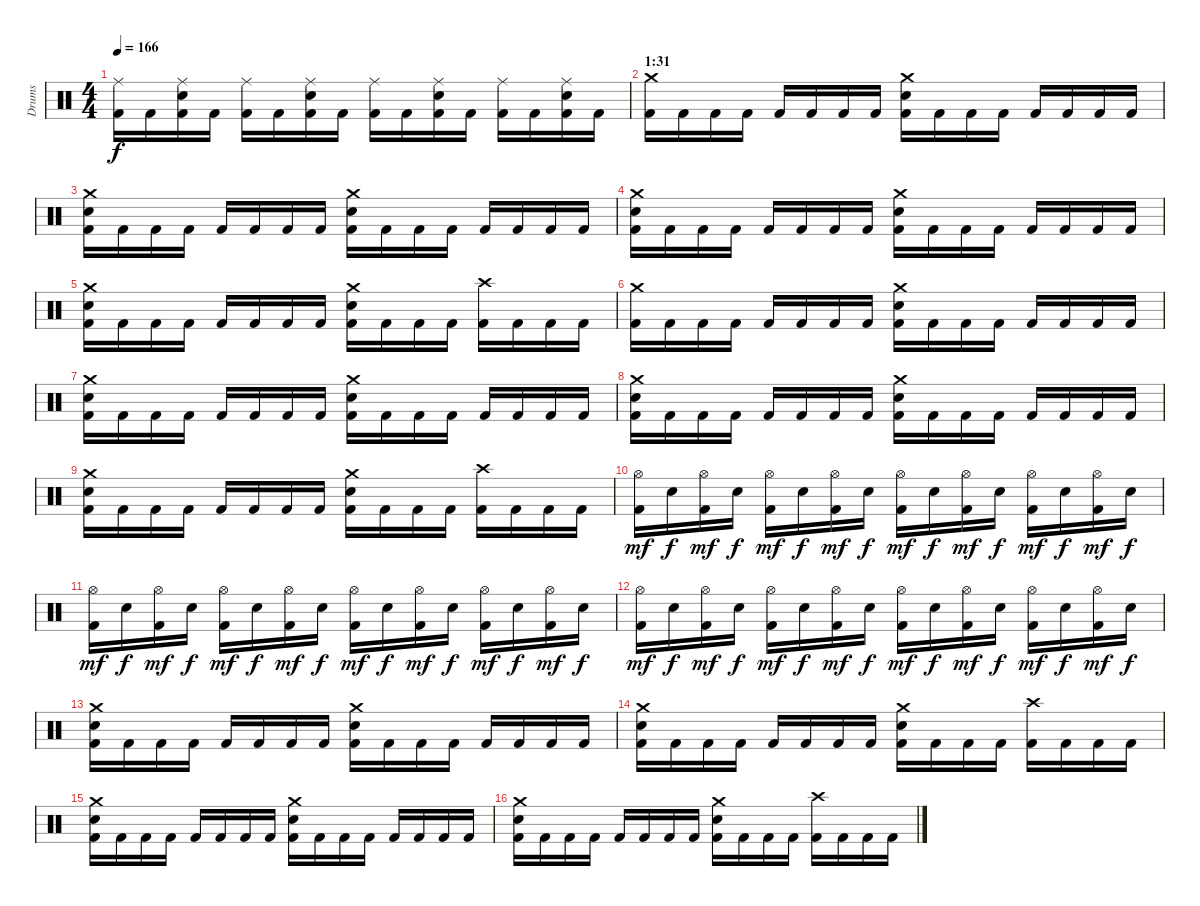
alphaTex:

\track ("Drums" "Drums") {instrument percussion}
\staff {score}
\articulation defaults
\ts (4 4)
\tempo 166
\clef neutral
\ks c
("Ride (middle)" "Kick (hit) 2").16{dy f} "Kick (hit) 2".16 ("Ride (middle)" "Electric Snare (hit)" "Kick (hit) 2").16 "Kick (hit) 2".16 ("Ride (middle)" "Kick (hit) 2").16 "Kick (hit) 2".16 ("Ride (middle)" "Electric Snare (hit)" "Kick (hit) 2").16 "Kick (hit) 2".16 ("Ride (middle)" "Kick (hit) 2").16 "Kick (hit) 2".16 ("Ride (middle)" "Electric Snare (hit)" "Kick (hit) 2").16 "Kick (hit) 2".16 ("Ride (middle)" "Kick (hit) 2").16 "Kick (hit) 2".16 ("Ride (middle)" "Electric Snare (hit)" "Kick (hit) 2").16 "Kick (hit) 2".16 |
\section ("" "1:31")
("Crash medium (hit)" "Kick (hit) 2").16 "Kick (hit) 2".16 "Kick (hit) 2".16 "Kick (hit) 2".16 "Kick (hit) 2".16 "Kick (hit) 2".16 "Kick (hit) 2".16 "Kick (hit) 2".16 ("Crash medium (hit)" "Electric Snare (hit)" "Kick (hit) 2").16 "Kick (hit) 2".16 "Kick (hit) 2".16 "Kick (hit) 2".16 "Kick (hit) 2".16 "Kick (hit) 2".16 "Kick (hit) 2".16 "Kick (hit) 2".16 |
("Crash medium (hit)" "Electric Snare (hit)" "Kick (hit) 2").16 "Kick (hit) 2".16 "Kick (hit) 2".16 "Kick (hit) 2".16 "Kick (hit) 2".16 "Kick (hit) 2".16 "Kick (hit) 2".16 "Kick (hit) 2".16 ("Crash medium (hit)" "Electric Snare (hit)" "Kick (hit) 2").16 "Kick (hit) 2".16 "Kick (hit) 2".16 "Kick (hit) 2".16 "Kick (hit) 2".16 "Kick (hit) 2".16 "Kick (hit) 2".16 "Kick (hit) 2".16 |
("Crash medium (hit)" "Electric Snare (hit)" "Kick (hit) 2").16 "Kick (hit) 2".16 "Kick (hit) 2".16 "Kick (hit) 2".16 "Kick (hit) 2".16 "Kick (hit) 2".16 "Kick (hit) 2".16 "Kick (hit) 2".16 ("Crash medium (hit)" "Electric Snare (hit)" "Kick (hit) 2").16 "Kick (hit) 2".16 "Kick (hit) 2".16 "Kick (hit) 2".16 "Kick (hit) 2".16 "Kick (hit) 2".16 "Kick (hit) 2".16 "Kick (hit) 2".16 |
("Crash medium (hit)" "Electric Snare (hit)" "Kick (hit) 2").16 "Kick (hit) 2".16 "Kick (hit) 2".16 "Kick (hit) 2".16 "Kick (hit) 2".16 "Kick (hit) 2".16 "Kick (hit) 2".16 "Kick (hit) 2".16 ("Crash medium (hit)" "Electric Snare (hit)" "Kick (hit) 2").16 "Kick (hit) 2".16 "Kick (hit) 2".16 "Kick (hit) 2".16 ("Crash high (hit)" "Kick (hit) 2").16 "Kick (hit) 2".16 "Kick (hit) 2".16 "Kick (hit) 2".16 |
("Crash medium (hit)" "Kick (hit) 2").16 "Kick (hit) 2".16 "Kick (hit) 2".16 "Kick (hit) 2".16 "Kick (hit) 2".16 "Kick (hit) 2".16 "Kick (hit) 2".16 "Kick (hit) 2".16 ("Crash medium (hit)" "Electric Snare (hit)" "Kick (hit) 2").16 "Kick (hit) 2".16 "Kick (hit) 2".16 "Kick (hit) 2".16 "Kick (hit) 2".16 "Kick (hit) 2".16 "Kick (hit) 2".16 "Kick (hit) 2".16 |
("Crash medium (hit)" "Electric Snare (hit)" "Kick (hit) 2").16 "Kick (hit) 2".16 "Kick (hit) 2".16 "Kick (hit) 2".16 "Kick (hit) 2".16 "Kick (hit) 2".16 "Kick (hit) 2".16 "Kick (hit) 2".16 ("Crash medium (hit)" "Electric Snare (hit)" "Kick (hit) 2").16 "Kick (hit) 2".16 "Kick (hit) 2".16 "Kick (hit) 2".16 "Kick (hit) 2".16 "Kick (hit) 2".16 "Kick (hit) 2".16 "Kick (hit) 2".16 |
("Crash medium (hit)" "Electric Snare (hit)" "Kick (hit) 2").16 "Kick (hit) 2".16 "Kick (hit) 2".16 "Kick (hit) 2".16 "Kick (hit) 2".16 "Kick (hit) 2".16 "Kick (hit) 2".16 "Kick (hit) 2".16 ("Crash medium (hit)" "Electric Snare (hit)" "Kick (hit) 2").16 "Kick (hit) 2".16 "Kick (hit) 2".16 "Kick (hit) 2".16 "Kick (hit) 2".16 "Kick (hit) 2".16 "Kick (hit) 2".16 "Kick (hit) 2".16 |
("Crash medium (hit)" "Electric Snare (hit)" "Kick (hit) 2").16 "Kick (hit) 2".16 "Kick (hit) 2".16 "Kick (hit) 2".16 "Kick (hit) 2".16 "Kick (hit) 2".16 "Kick (hit) 2".16 "Kick (hit) 2".16 ("Crash medium (hit)" "Electric Snare (hit)" "Kick (hit) 2").16 "Kick (hit) 2".16 "Kick (hit) 2".16 "Kick (hit) 2".16 ("Crash high (hit)" "Kick (hit) 2").16 "Kick (hit) 2".16 "Kick (hit) 2".16 "Kick (hit) 2".16 |
("Hi-Hat (open)" "Kick (hit) 2").16{dy mf} "Snare (hit) 2".16{dy f} ("Hi-Hat (open)" "Kick (hit) 2").16{dy mf} "Snare (hit) 2".16{dy f} ("Hi-Hat (open)" "Kick (hit) 2").16{dy mf} "Snare (hit) 2".16{dy f} ("Hi-Hat (open)" "Kick (hit) 2").16{dy mf} "Snare (hit) 2".16{dy f} ("Hi-Hat (open)" "Kick (hit) 2").16{dy mf} "Snare (hit) 2".16{dy f} ("Hi-Hat (open)" "Kick (hit) 2").16{dy mf} "Snare (hit) 2".16{dy f} ("Hi-Hat (open)" "Kick (hit) 2").16{dy mf} "Snare (hit) 2".16{dy f} ("Hi-Hat (open)" "Kick (hit) 2").16{dy mf} "Snare (hit) 2".16{dy f} |
("Hi-Hat (open)" "Kick (hit) 2").16{dy mf} "Snare (hit) 2".16{dy f} ("Hi-Hat (open)" "Kick (hit) 2").16{dy mf} "Snare (hit) 2".16{dy f} ("Hi-Hat (open)" "Kick (hit) 2").16{dy mf} "Snare (hit) 2".16{dy f} ("Hi-Hat (open)" "Kick (hit) 2").16{dy mf} "Snare (hit) 2".16{dy f} ("Hi-Hat (open)" "Kick (hit) 2").16{dy mf} "Snare (hit) 2".16{dy f} ("Hi-Hat (open)" "Kick (hit) 2").16{dy mf} "Snare (hit) 2".16{dy f} ("Hi-Hat (open)" "Kick (hit) 2").16{dy mf} "Snare (hit) 2".16{dy f} ("Hi-Hat (open)" "Kick (hit) 2").16{dy mf} "Snare (hit) 2".16{dy f} |
("Hi-Hat (open)" "Kick (hit) 2").16{dy mf} "Snare (hit) 2".16{dy f} ("Hi-Hat (open)" "Kick (hit) 2").16{dy mf} "Snare (hit) 2".16{dy f} ("Hi-Hat (open)" "Kick (hit) 2").16{dy mf} "Snare (hit) 2".16{dy f} ("Hi-Hat (open)" "Kick (hit) 2").16{dy mf} "Snare (hit) 2".16{dy f} ("Hi-Hat (open)" "Kick (hit) 2").16{dy mf} "Snare (hit) 2".16{dy f} ("Hi-Hat (open)" "Kick (hit) 2").16{dy mf} "Snare (hit) 2".16{dy f} ("Hi-Hat (open)" "Kick (hit) 2").16{dy mf} "Snare (hit) 2".16{dy f} ("Hi-Hat (open)" "Kick (hit) 2").16{dy mf} "Snare (hit) 2".16{dy f} |
("Crash medium (hit)" "Electric Snare (hit)" "Kick (hit) 2").16 "Kick (hit) 2".16 "Kick (hit) 2".16 "Kick (hit) 2".16 "Kick (hit) 2".16 "Kick (hit) 2".16 "Kick (hit) 2".16 "Kick (hit) 2".16 ("Crash medium (hit)" "Electric Snare (hit)" "Kick (hit) 2").16 "Kick (hit) 2".16 "Kick (hit) 2".16 "Kick (hit) 2".16 "Kick (hit) 2".16 "Kick (hit) 2".16 "Kick (hit) 2".16 "Kick (hit) 2".16 |
("Crash medium (hit)" "Electric Snare (hit)" "Kick (hit) 2").16 "Kick (hit) 2".16 "Kick (hit) 2".16 "Kick (hit) 2".16 "Kick (hit) 2".16 "Kick (hit) 2".16 "Kick (hit) 2".16 "Kick (hit) 2".16 ("Crash medium (hit)" "Electric Snare (hit)" "Kick (hit) 2").16 "Kick (hit) 2".16 "Kick (hit) 2".16 "Kick (hit) 2".16 ("Crash high (hit)" "Kick (hit) 2").16 "Kick (hit) 2".16 "Kick (hit) 2".16 "Kick (hit) 2".16 |
("Crash medium (hit)" "Electric Snare (hit)" "Kick (hit) 2").16 "Kick (hit) 2".16 "Kick (hit) 2".16 "Kick (hit) 2".16 "Kick (hit) 2".16 "Kick (hit) 2".16 "Kick (hit) 2".16 "Kick (hit) 2".16 ("Crash medium (hit)" "Electric Snare (hit)" "Kick (hit) 2").16 "Kick (hit) 2".16 "Kick (hit) 2".16 "Kick (hit) 2".16 "Kick (hit) 2".16 "Kick (hit) 2".16 "Kick (hit) 2".16 "Kick (hit) 2".16 |
("Crash medium (hit)" "Electric Snare (hit)" "Kick (hit) 2").16 "Kick (hit) 2".16 "Kick (hit) 2".16 "Kick (hit) 2".16 "Kick (hit) 2".16 "Kick (hit) 2".16 "Kick (hit) 2".16 "Kick (hit) 2".16 ("Crash medium (hit)" "Electric Snare (hit)" "Kick (hit) 2").16 "Kick (hit) 2".16 "Kick (hit) 2".16 "Kick (hit) 2".16 ("Crash high (hit)" "Kick (hit) 2").16 "Kick (hit) 2".16 "Kick (hit) 2".16 "Kick (hit) 2".16
